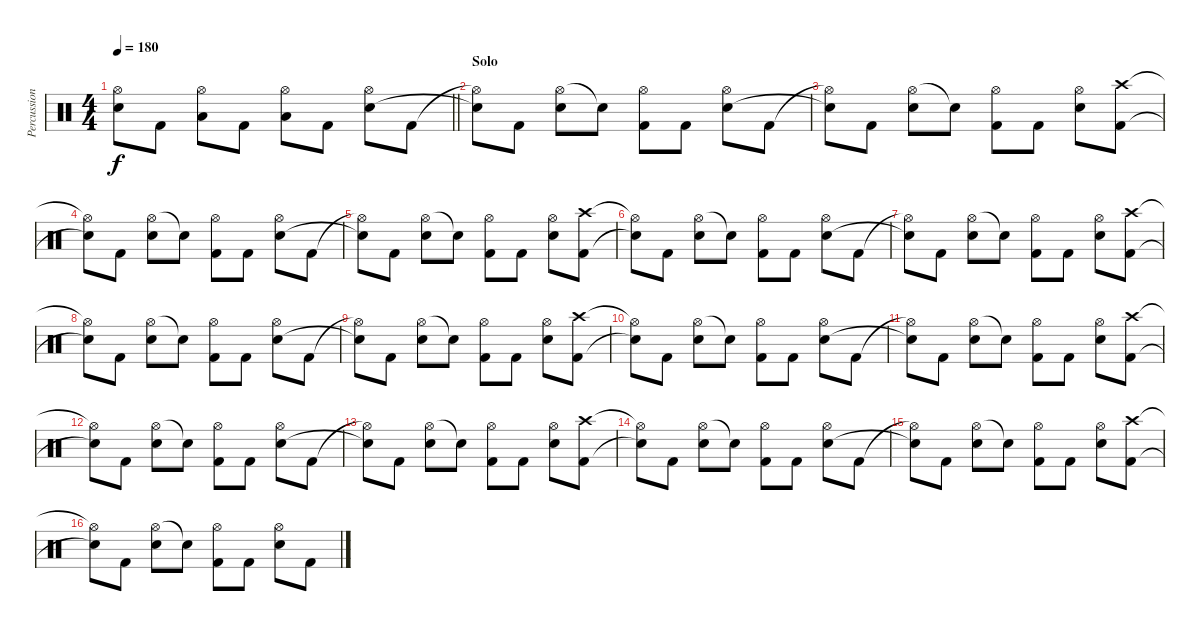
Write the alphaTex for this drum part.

\track ("Percussion" "Percussion") {instrument percussion}
\staff {score}
\articulation defaults
\ts (4 4)
\tempo 180
\clef neutral
\barLineRight lightlight
\ks c
("Hi-Hat (open)" "Electric Snare (hit)").8{dy f} "Kick (hit) 2".8 ("Hi-Hat (open)" "Low Floor Tom (hit)").8 "Kick (hit) 2".8 ("Hi-Hat (open)" "Low Floor Tom (hit)").8 "Kick (hit) 2".8 ("Hi-Hat (open)" "Electric Snare (hit)").8 "Kick (hit) 2".8 |
\section ("" "Solo")
("Hi-Hat (open)"{t} "Snare (hit)"{t}).8 "Kick (hit) 2".8 ("Hi-Hat (open)" "Electric Snare (hit)").8 "Snare (hit)"{t}.8 ("Hi-Hat (open)" "Kick (hit) 2").8 "Kick (hit) 2".8 ("Hi-Hat (open)" "Electric Snare (hit)").8 "Kick (hit) 2".8 |
("Hi-Hat (open)"{t} "Snare (hit)"{t}).8 "Kick (hit) 2".8 ("Hi-Hat (open)" "Electric Snare (hit)").8 "Snare (hit)"{t}.8 ("Hi-Hat (open)" "Kick (hit) 2").8 "Kick (hit) 2".8 ("Hi-Hat (open)" "Electric Snare (hit)").8 ("Crash high (hit)" "Kick (hit) 2").8 |
("Hi-Hat (open)"{t} "Snare (hit)"{t}).8 "Kick (hit) 2".8 ("Hi-Hat (open)" "Electric Snare (hit)").8 "Snare (hit)"{t}.8 ("Hi-Hat (open)" "Kick (hit) 2").8 "Kick (hit) 2".8 ("Hi-Hat (open)" "Electric Snare (hit)").8 "Kick (hit) 2".8 |
("Hi-Hat (open)"{t} "Snare (hit)"{t}).8 "Kick (hit) 2".8 ("Hi-Hat (open)" "Electric Snare (hit)").8 "Snare (hit)"{t}.8 ("Hi-Hat (open)" "Kick (hit) 2").8 "Kick (hit) 2".8 ("Hi-Hat (open)" "Electric Snare (hit)").8 ("Crash high (hit)" "Kick (hit) 2").8 |
("Hi-Hat (open)"{t} "Snare (hit)"{t}).8 "Kick (hit) 2".8 ("Hi-Hat (open)" "Electric Snare (hit)").8 "Snare (hit)"{t}.8 ("Hi-Hat (open)" "Kick (hit) 2").8 "Kick (hit) 2".8 ("Hi-Hat (open)" "Electric Snare (hit)").8 "Kick (hit) 2".8 |
("Hi-Hat (open)"{t} "Snare (hit)"{t}).8 "Kick (hit) 2".8 ("Hi-Hat (open)" "Electric Snare (hit)").8 "Snare (hit)"{t}.8 ("Hi-Hat (open)" "Kick (hit) 2").8 "Kick (hit) 2".8 ("Hi-Hat (open)" "Electric Snare (hit)").8 ("Crash high (hit)" "Kick (hit) 2").8 |
("Hi-Hat (open)"{t} "Snare (hit)"{t}).8 "Kick (hit) 2".8 ("Hi-Hat (open)" "Electric Snare (hit)").8 "Snare (hit)"{t}.8 ("Hi-Hat (open)" "Kick (hit) 2").8 "Kick (hit) 2".8 ("Hi-Hat (open)" "Electric Snare (hit)").8 "Kick (hit) 2".8 |
("Hi-Hat (open)"{t} "Snare (hit)"{t}).8 "Kick (hit) 2".8 ("Hi-Hat (open)" "Electric Snare (hit)").8 "Snare (hit)"{t}.8 ("Hi-Hat (open)" "Kick (hit) 2").8 "Kick (hit) 2".8 ("Hi-Hat (open)" "Electric Snare (hit)").8 ("Crash high (hit)" "Kick (hit) 2").8 |
("Hi-Hat (open)"{t} "Snare (hit)"{t}).8 "Kick (hit) 2".8 ("Hi-Hat (open)" "Electric Snare (hit)").8 "Snare (hit)"{t}.8 ("Hi-Hat (open)" "Kick (hit) 2").8 "Kick (hit) 2".8 ("Hi-Hat (open)" "Electric Snare (hit)").8 "Kick (hit) 2".8 |
("Hi-Hat (open)"{t} "Snare (hit)"{t}).8 "Kick (hit) 2".8 ("Hi-Hat (open)" "Electric Snare (hit)").8 "Snare (hit)"{t}.8 ("Hi-Hat (open)" "Kick (hit) 2").8 "Kick (hit) 2".8 ("Hi-Hat (open)" "Electric Snare (hit)").8 ("Crash high (hit)" "Kick (hit) 2").8 |
("Hi-Hat (open)"{t} "Snare (hit)"{t}).8 "Kick (hit) 2".8 ("Hi-Hat (open)" "Electric Snare (hit)").8 "Snare (hit)"{t}.8 ("Hi-Hat (open)" "Kick (hit) 2").8 "Kick (hit) 2".8 ("Hi-Hat (open)" "Electric Snare (hit)").8 "Kick (hit) 2".8 |
("Hi-Hat (open)"{t} "Snare (hit)"{t}).8 "Kick (hit) 2".8 ("Hi-Hat (open)" "Electric Snare (hit)").8 "Snare (hit)"{t}.8 ("Hi-Hat (open)" "Kick (hit) 2").8 "Kick (hit) 2".8 ("Hi-Hat (open)" "Electric Snare (hit)").8 ("Crash high (hit)" "Kick (hit) 2").8 |
("Hi-Hat (open)"{t} "Snare (hit)"{t}).8 "Kick (hit) 2".8 ("Hi-Hat (open)" "Electric Snare (hit)").8 "Snare (hit)"{t}.8 ("Hi-Hat (open)" "Kick (hit) 2").8 "Kick (hit) 2".8 ("Hi-Hat (open)" "Electric Snare (hit)").8 "Kick (hit) 2".8 |
("Hi-Hat (open)"{t} "Snare (hit)"{t}).8 "Kick (hit) 2".8 ("Hi-Hat (open)" "Electric Snare (hit)").8 "Snare (hit)"{t}.8 ("Hi-Hat (open)" "Kick (hit) 2").8 "Kick (hit) 2".8 ("Hi-Hat (open)" "Electric Snare (hit)").8 ("Crash high (hit)" "Kick (hit) 2").8 |
("Hi-Hat (open)"{t} "Snare (hit)"{t}).8 "Kick (hit) 2".8 ("Hi-Hat (open)" "Electric Snare (hit)").8 "Snare (hit)"{t}.8 ("Hi-Hat (open)" "Kick (hit) 2").8 "Kick (hit) 2".8 ("Hi-Hat (open)" "Electric Snare (hit)").8 "Kick (hit) 2".8
